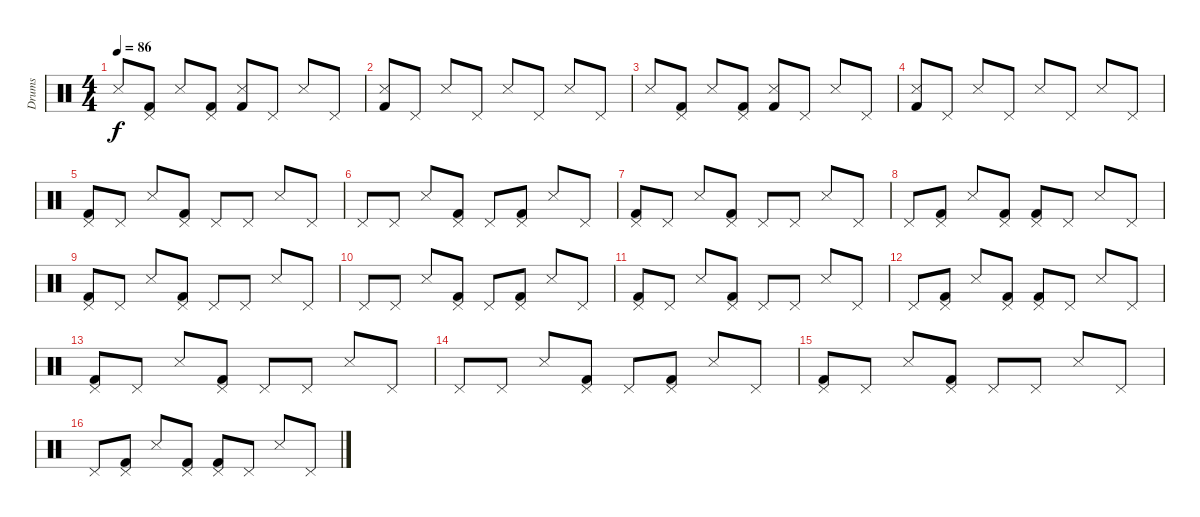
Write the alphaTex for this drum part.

\track ("Drums" "Drums") {instrument percussion}
\staff {score}
\articulation defaults
\ts (4 4)
\tempo 86
\clef neutral
\ks c "Snare (side stick) 3".8{dy f}
("Pedal Hi-Hat (hit)" "Kick (hit) 2").8 "Snare (side stick) 3".8 ("Pedal Hi-Hat (hit)" "Kick (hit) 2").8 ("Snare (side stick) 3" "Kick (hit) 2").8 "Pedal Hi-Hat (hit)".8 "Snare (side stick) 3".8 "Pedal Hi-Hat (hit)".8 |
("Snare (side stick) 3" "Kick (hit) 2").8 "Pedal Hi-Hat (hit)".8 "Snare (side stick) 3".8 "Pedal Hi-Hat (hit)".8 "Snare (side stick) 3".8 "Pedal Hi-Hat (hit)".8 "Snare (side stick) 3".8 "Pedal Hi-Hat (hit)".8 |
"Snare (side stick) 3".8 ("Pedal Hi-Hat (hit)" "Kick (hit) 2").8 "Snare (side stick) 3".8 ("Pedal Hi-Hat (hit)" "Kick (hit) 2").8 ("Snare (side stick) 3" "Kick (hit) 2").8 "Pedal Hi-Hat (hit)".8 "Snare (side stick) 3".8 "Pedal Hi-Hat (hit)".8 |
("Snare (side stick) 3" "Kick (hit) 2").8 "Pedal Hi-Hat (hit)".8 "Snare (side stick) 3".8 "Pedal Hi-Hat (hit)".8 "Snare (side stick) 3".8 "Pedal Hi-Hat (hit)".8 "Snare (side stick) 3".8 "Pedal Hi-Hat (hit)".8 |
("Pedal Hi-Hat (hit)" "Kick (hit) 2").8 "Pedal Hi-Hat (hit)".8 "Snare (side stick) 3".8 ("Pedal Hi-Hat (hit)" "Kick (hit) 2").8 "Pedal Hi-Hat (hit)".8 "Pedal Hi-Hat (hit)".8 "Snare (side stick) 3".8 "Pedal Hi-Hat (hit)".8 |
"Pedal Hi-Hat (hit)".8 "Pedal Hi-Hat (hit)".8 "Snare (side stick) 3".8 ("Pedal Hi-Hat (hit)" "Kick (hit) 2").8 "Pedal Hi-Hat (hit)".8 ("Pedal Hi-Hat (hit)" "Kick (hit) 2").8 "Snare (side stick) 3".8 "Pedal Hi-Hat (hit)".8 |
("Pedal Hi-Hat (hit)" "Kick (hit) 2").8 "Pedal Hi-Hat (hit)".8 "Snare (side stick) 3".8 ("Pedal Hi-Hat (hit)" "Kick (hit) 2").8 "Pedal Hi-Hat (hit)".8 "Pedal Hi-Hat (hit)".8 "Snare (side stick) 3".8 "Pedal Hi-Hat (hit)".8 |
"Pedal Hi-Hat (hit)".8 ("Pedal Hi-Hat (hit)" "Kick (hit) 2").8 "Snare (side stick) 3".8 ("Pedal Hi-Hat (hit)" "Kick (hit) 2").8 ("Pedal Hi-Hat (hit)" "Kick (hit) 2").8 "Pedal Hi-Hat (hit)".8 "Snare (side stick) 3".8 "Pedal Hi-Hat (hit)".8 |
("Pedal Hi-Hat (hit)" "Kick (hit) 2").8 "Pedal Hi-Hat (hit)".8 "Snare (side stick) 3".8 ("Pedal Hi-Hat (hit)" "Kick (hit) 2").8 "Pedal Hi-Hat (hit)".8 "Pedal Hi-Hat (hit)".8 "Snare (side stick) 3".8 "Pedal Hi-Hat (hit)".8 |
"Pedal Hi-Hat (hit)".8 "Pedal Hi-Hat (hit)".8 "Snare (side stick) 3".8 ("Pedal Hi-Hat (hit)" "Kick (hit) 2").8 "Pedal Hi-Hat (hit)".8 ("Pedal Hi-Hat (hit)" "Kick (hit) 2").8 "Snare (side stick) 3".8 "Pedal Hi-Hat (hit)".8 |
("Pedal Hi-Hat (hit)" "Kick (hit) 2").8 "Pedal Hi-Hat (hit)".8 "Snare (side stick) 3".8 ("Pedal Hi-Hat (hit)" "Kick (hit) 2").8 "Pedal Hi-Hat (hit)".8 "Pedal Hi-Hat (hit)".8 "Snare (side stick) 3".8 "Pedal Hi-Hat (hit)".8 |
"Pedal Hi-Hat (hit)".8 ("Pedal Hi-Hat (hit)" "Kick (hit) 2").8 "Snare (side stick) 3".8 ("Pedal Hi-Hat (hit)" "Kick (hit) 2").8 ("Pedal Hi-Hat (hit)" "Kick (hit) 2").8 "Pedal Hi-Hat (hit)".8 "Snare (side stick) 3".8 "Pedal Hi-Hat (hit)".8 |
("Pedal Hi-Hat (hit)" "Kick (hit) 2").8 "Pedal Hi-Hat (hit)".8 "Snare (side stick) 3".8 ("Pedal Hi-Hat (hit)" "Kick (hit) 2").8 "Pedal Hi-Hat (hit)".8 "Pedal Hi-Hat (hit)".8 "Snare (side stick) 3".8 "Pedal Hi-Hat (hit)".8 |
"Pedal Hi-Hat (hit)".8 "Pedal Hi-Hat (hit)".8 "Snare (side stick) 3".8 ("Pedal Hi-Hat (hit)" "Kick (hit) 2").8 "Pedal Hi-Hat (hit)".8 ("Pedal Hi-Hat (hit)" "Kick (hit) 2").8 "Snare (side stick) 3".8 "Pedal Hi-Hat (hit)".8 |
("Pedal Hi-Hat (hit)" "Kick (hit) 2").8 "Pedal Hi-Hat (hit)".8 "Snare (side stick) 3".8 ("Pedal Hi-Hat (hit)" "Kick (hit) 2").8 "Pedal Hi-Hat (hit)".8 "Pedal Hi-Hat (hit)".8 "Snare (side stick) 3".8 "Pedal Hi-Hat (hit)".8 |
"Pedal Hi-Hat (hit)".8 ("Pedal Hi-Hat (hit)" "Kick (hit) 2").8 "Snare (side stick) 3".8 ("Pedal Hi-Hat (hit)" "Kick (hit) 2").8 ("Pedal Hi-Hat (hit)" "Kick (hit) 2").8 "Pedal Hi-Hat (hit)".8 "Snare (side stick) 3".8 "Pedal Hi-Hat (hit)".8
